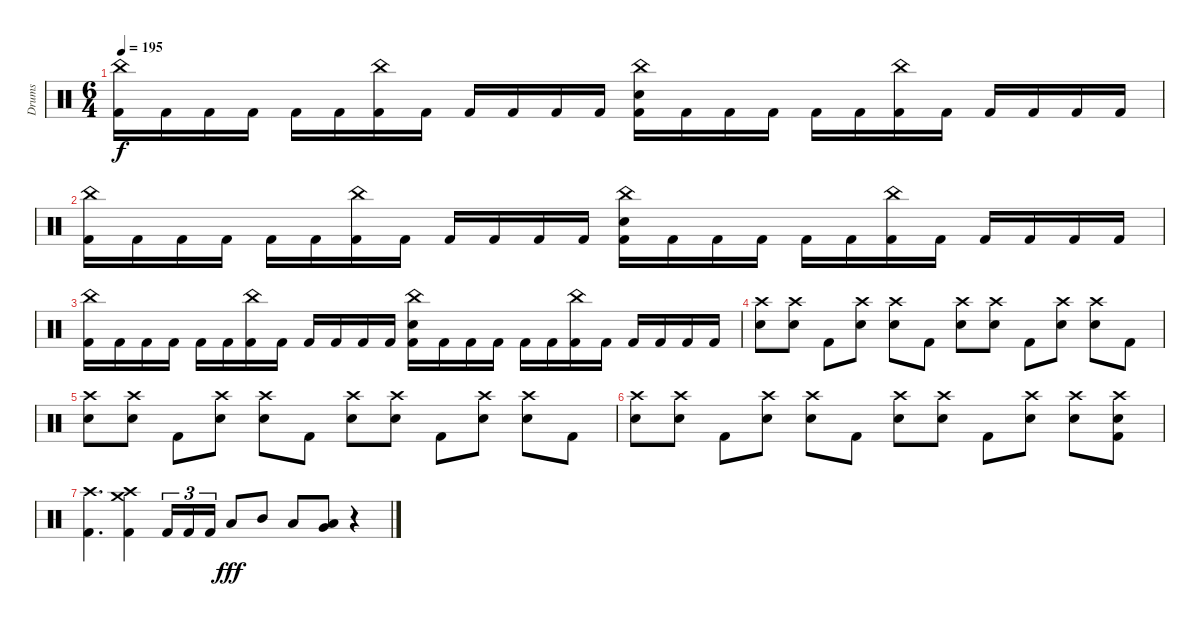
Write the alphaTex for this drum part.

\track ("Drums" "Drums") {instrument percussion}
\staff {score}
\articulation defaults
\ts (6 4)
\tempo 195
\clef neutral
\ks c
("China (hit)" "Kick (hit) 2").16{dy f} "Kick (hit) 2".16 "Kick (hit) 2".16 "Kick (hit) 2".16 "Kick (hit) 2".16 "Kick (hit) 2".16 ("China (hit)" "Kick (hit) 2").16 "Kick (hit) 2".16 "Kick (hit) 2".16 "Kick (hit) 2".16 "Kick (hit) 2".16 "Kick (hit) 2".16 ("China (hit)" "Electric Snare (hit)" "Kick (hit) 2").16 "Kick (hit) 2".16 "Kick (hit) 2".16 "Kick (hit) 2".16 "Kick (hit) 2".16 "Kick (hit) 2".16 ("China (hit)" "Kick (hit) 2").16 "Kick (hit) 2".16 "Kick (hit) 2".16 "Kick (hit) 2".16 "Kick (hit) 2".16 "Kick (hit) 2".16 |
("China (hit)" "Kick (hit) 2").16 "Kick (hit) 2".16 "Kick (hit) 2".16 "Kick (hit) 2".16 "Kick (hit) 2".16 "Kick (hit) 2".16 ("China (hit)" "Kick (hit) 2").16 "Kick (hit) 2".16 "Kick (hit) 2".16 "Kick (hit) 2".16 "Kick (hit) 2".16 "Kick (hit) 2".16 ("China (hit)" "Electric Snare (hit)" "Kick (hit) 2").16 "Kick (hit) 2".16 "Kick (hit) 2".16 "Kick (hit) 2".16 "Kick (hit) 2".16 "Kick (hit) 2".16 ("China (hit)" "Kick (hit) 2").16 "Kick (hit) 2".16 "Kick (hit) 2".16 "Kick (hit) 2".16 "Kick (hit) 2".16 "Kick (hit) 2".16 |
("China (hit)" "Kick (hit) 2").16 "Kick (hit) 2".16 "Kick (hit) 2".16 "Kick (hit) 2".16 "Kick (hit) 2".16 "Kick (hit) 2".16 ("China (hit)" "Kick (hit) 2").16 "Kick (hit) 2".16 "Kick (hit) 2".16 "Kick (hit) 2".16 "Kick (hit) 2".16 "Kick (hit) 2".16 ("China (hit)" "Electric Snare (hit)" "Kick (hit) 2").16 "Kick (hit) 2".16 "Kick (hit) 2".16 "Kick (hit) 2".16 "Kick (hit) 2".16 "Kick (hit) 2".16 ("China (hit)" "Kick (hit) 2").16 "Kick (hit) 2".16 "Kick (hit) 2".16 "Kick (hit) 2".16 "Kick (hit) 2".16 "Kick (hit) 2".16 |
("Crash high (hit)" "Electric Snare (hit)").8 ("Crash high (hit)" "Electric Snare (hit)").8 "Kick (hit) 2".8 ("Crash high (hit)" "Electric Snare (hit)").8 ("Crash high (hit)" "Electric Snare (hit)").8 "Kick (hit) 2".8 ("Crash high (hit)" "Electric Snare (hit)").8 ("Crash high (hit)" "Electric Snare (hit)").8 "Kick (hit) 2".8 ("Crash high (hit)" "Electric Snare (hit)").8 ("Crash high (hit)" "Electric Snare (hit)").8 "Kick (hit) 2".8 |
("Crash high (hit)" "Electric Snare (hit)").8 ("Crash high (hit)" "Electric Snare (hit)").8 "Kick (hit) 2".8 ("Crash high (hit)" "Electric Snare (hit)").8 ("Crash high (hit)" "Electric Snare (hit)").8 "Kick (hit) 2".8 ("Crash high (hit)" "Electric Snare (hit)").8 ("Crash high (hit)" "Electric Snare (hit)").8 "Kick (hit) 2".8 ("Crash high (hit)" "Electric Snare (hit)").8 ("Crash high (hit)" "Electric Snare (hit)").8 "Kick (hit) 2".8 |
("Crash high (hit)" "Electric Snare (hit)").8 ("Crash high (hit)" "Electric Snare (hit)").8 "Kick (hit) 2".8 ("Crash high (hit)" "Electric Snare (hit)").8 ("Crash high (hit)" "Electric Snare (hit)").8 "Kick (hit) 2".8 ("Crash high (hit)" "Electric Snare (hit)").8 ("Crash high (hit)" "Electric Snare (hit)").8 "Kick (hit) 2".8 ("Crash high (hit)" "Electric Snare (hit)").8 ("Crash high (hit)" "Electric Snare (hit)").8 ("Crash high (hit)" "Electric Snare (hit)" "Kick (hit) 2").8 |
("Crash high (hit)" "Kick (hit) 2").4{d} ("Crash high (hit)" "Crash medium (hit)" "Kick (hit) 2").4 "Kick (hit) 2".16{tu (3 2)} "Kick (hit) 2".16{tu (3 2)} "Kick (hit) 2".16{tu (3 2)} "Low Tom (hit)".8{dy fff} "Mid Tom (hit)".8 "Low Tom (hit)".8 ("Low Floor Tom (hit)" "Very Low Tom (hit)").8 r.4
